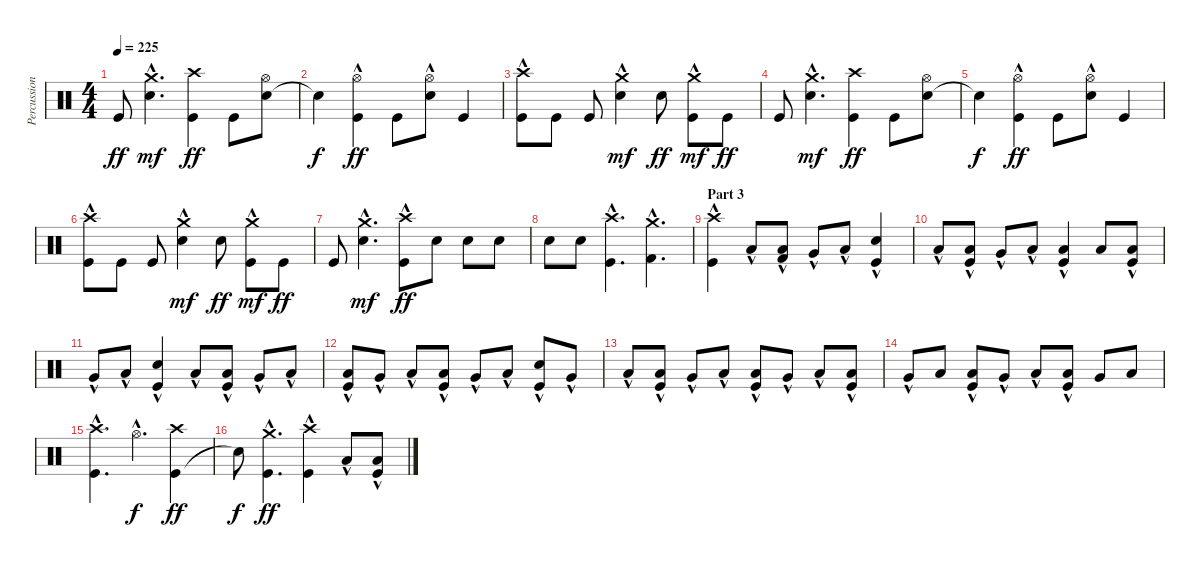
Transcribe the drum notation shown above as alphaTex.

\track ("Percussions" "Percussion") {instrument percussion}
\staff {score}
\articulation defaults
\ts (4 4)
\tempo 225
\clef neutral
\ks c "Kick (hit)".8{dy ff}
("Electric Snare (hit)"{hac} "Crash medium (hit)"{hac}).4{d dy mf} ("Kick (hit)" "Crash high (hit)").4{dy ff} "Kick (hit)".8 ("Electric Snare (hit)" "Hi-Hat (open)").8 |
"Snare (hit)"{t}.4{dy f} ("Kick (hit)" "Hi-Hat (open)"{hac}).4{dy ff} "Kick (hit)".8 ("Electric Snare (hit)"{hac} "Hi-Hat (open)").8 "Kick (hit)".4 |
("Kick (hit)" "Crash high (hit)"{hac}).8 "Kick (hit)".8 "Kick (hit)".8 ("Electric Snare (hit)" "Crash medium (hit)"{hac}).4{dy mf} "Electric Snare (hit)".8{dy ff} ("Kick (hit)" "Crash medium (hit)"{hac}).8{dy mf} "Kick (hit)".8{dy ff} |
"Kick (hit)".8 ("Electric Snare (hit)"{hac} "Crash medium (hit)"{hac}).4{d dy mf} ("Kick (hit)" "Crash high (hit)").4{dy ff} "Kick (hit)".8 ("Electric Snare (hit)" "Hi-Hat (open)").8 |
"Snare (hit)"{t}.4{dy f} ("Kick (hit)" "Hi-Hat (open)"{hac}).4{dy ff} "Kick (hit)".8 ("Electric Snare (hit)"{hac} "Hi-Hat (open)").8 "Kick (hit)".4 |
("Kick (hit)" "Crash high (hit)"{hac}).8 "Kick (hit)".8 "Kick (hit)".8 ("Electric Snare (hit)" "Crash medium (hit)"{hac}).4{dy mf} "Electric Snare (hit)".8{dy ff} ("Kick (hit)" "Crash medium (hit)"{hac}).8{dy mf} "Kick (hit)".8{dy ff} |
"Kick (hit)".8 ("Electric Snare (hit)" "Crash medium (hit)"{hac}).4{d dy mf} ("Kick (hit)"{hac} "Crash high (hit)"{hac}).8{dy ff} "Electric Snare (hit)".8 "Electric Snare (hit)".8 "Electric Snare (hit)".8 |
"Electric Snare (hit)".8 "Electric Snare (hit)".8 ("Kick (hit)"{hac} "Crash high (hit)"{hac}).4{d} ("Kick (hit) 2"{hac} "Crash medium (hit)"{hac}).4{d} |
\section ("" "Part 3")
("Kick (hit)"{hac} "Crash high (hit)").4 "Low Floor Tom (hit)"{hac}.8 ("Kick (hit) 2"{hac} "Low Tom (hit)"{hac}).8 "Very Low Tom (hit)"{hac}.8 "Low Floor Tom (hit)"{hac}.8 ("Kick (hit)"{hac} "Electric Snare (hit)"{hac}).4 |
"Low Floor Tom (hit)"{hac}.8 ("Kick (hit)"{hac} "Low Tom (hit)"{hac}).8 "Very Low Tom (hit)"{hac}.8 "Low Floor Tom (hit)"{hac}.8 ("Kick (hit)"{hac} "Low Tom (hit)"{hac}).4 "Low Floor Tom (hit)".8 ("Kick (hit)"{hac} "Low Tom (hit)"{hac}).8 |
"Very Low Tom (hit)"{hac}.8 "Low Floor Tom (hit)"{hac}.8 ("Kick (hit)"{hac} "Electric Snare (hit)"{hac}).4 "Low Floor Tom (hit)"{hac}.8 ("Kick (hit)"{hac} "Low Tom (hit)"{hac}).8 "Very Low Tom (hit)"{hac}.8 "Low Floor Tom (hit)"{hac}.8 |
("Kick (hit)"{hac} "Low Tom (hit)").8 "Very Low Tom (hit)"{hac}.8 "Low Floor Tom (hit)"{hac}.8 ("Kick (hit)"{hac} "Low Tom (hit)"{hac}).8 "Very Low Tom (hit)"{hac}.8 "Low Floor Tom (hit)"{hac}.8 ("Kick (hit)"{hac} "Electric Snare (hit)"{hac}).8 "Very Low Tom (hit)"{hac}.8 |
"Low Floor Tom (hit)"{hac}.8 ("Kick (hit)" "Low Tom (hit)"{hac}).8 "Very Low Tom (hit)"{hac}.8 "Low Floor Tom (hit)"{hac}.8 ("Kick (hit)" "Low Tom (hit)"{hac}).8 "Very Low Tom (hit)"{hac}.8 "Low Floor Tom (hit)"{hac}.8 ("Kick (hit)" "Low Tom (hit)"{hac}).8 |
"Very Low Tom (hit)"{hac}.8 "Low Floor Tom (hit)".8 ("Kick (hit)"{hac} "Low Floor Tom (hit)"{hac}).8 "Very Low Tom (hit)"{hac}.8 "Low Floor Tom (hit)"{hac}.8 ("Kick (hit)"{hac} "Low Tom (hit)"{hac}).8 "Very Low Tom (hit)".8 "Low Floor Tom (hit)".8 |
("Kick (hit)"{hac} "Crash high (hit)"{hac}).4{d} "Hi-Hat (open)"{hac}.4{d dy f} ("Kick (hit)" "Crash high (hit)").4{dy ff} |
"Snare (hit)"{t}.8{dy f} ("Kick (hit)"{hac} "Crash medium (hit)"{hac}).4{d dy ff} ("Kick (hit)"{hac} "Crash high (hit)").4 "Low Floor Tom (hit)"{hac}.8 ("Kick (hit)" "Low Tom (hit)"{hac}).8
